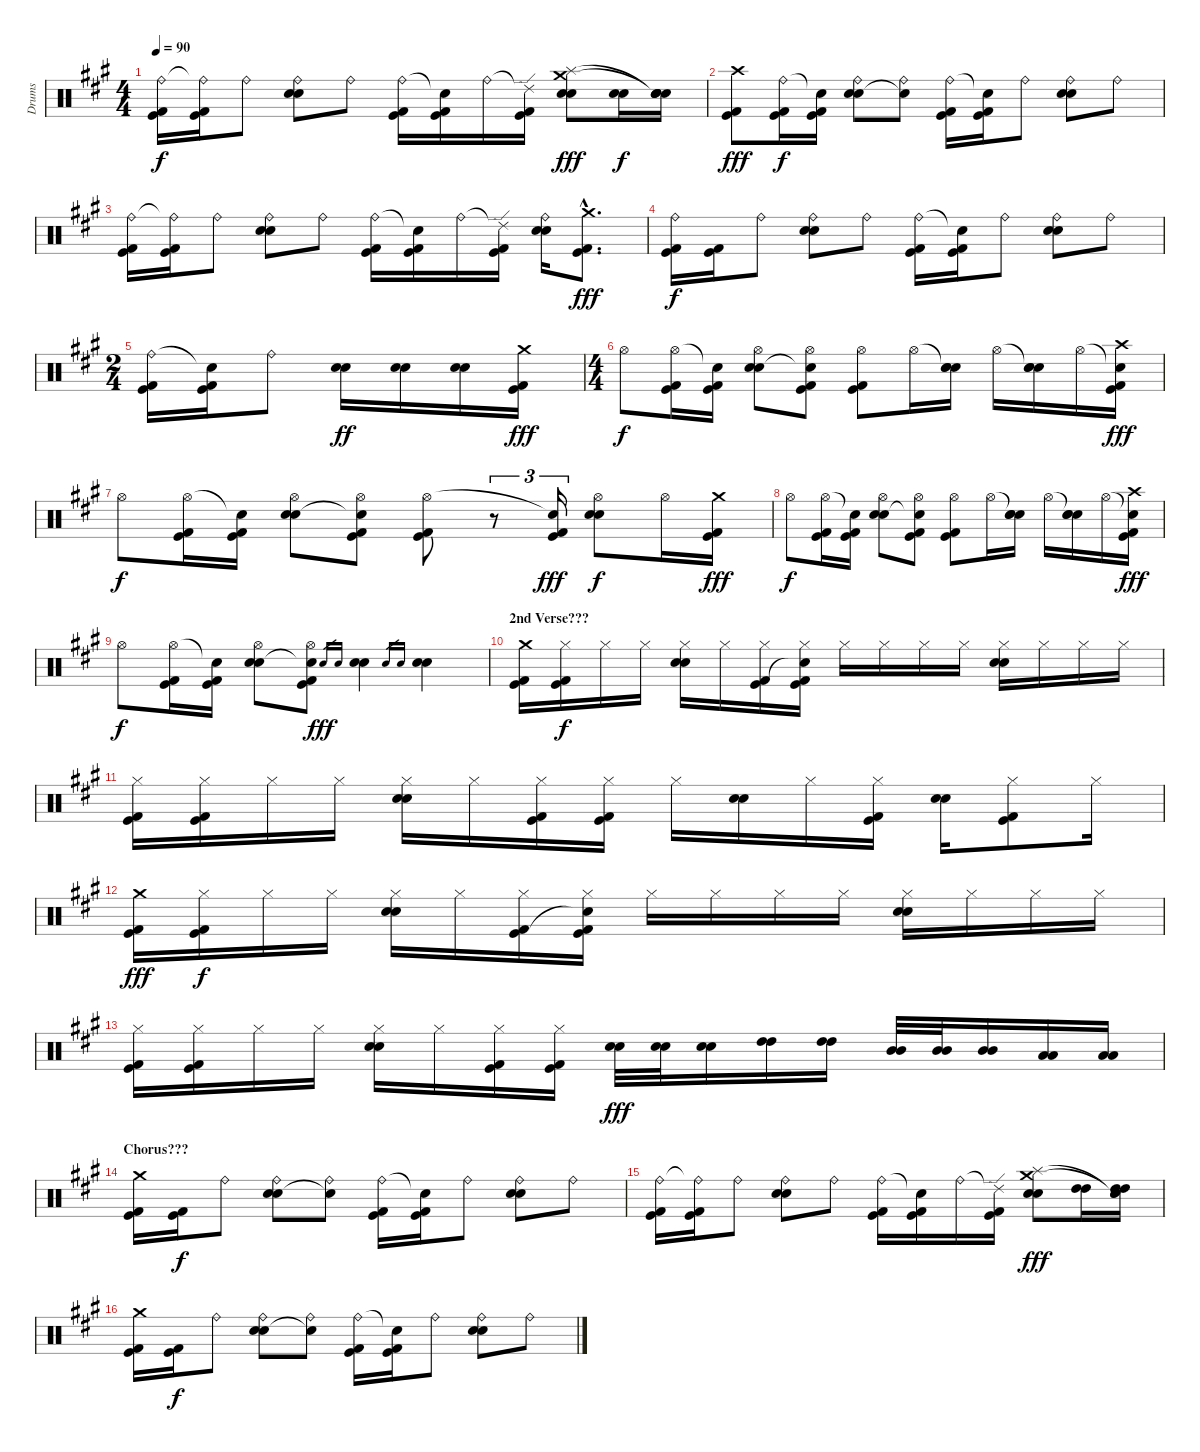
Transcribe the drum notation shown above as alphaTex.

\track ("Drums" "Drums") {instrument percussion}
\staff {score}
\articulation defaults
\ts (4 4)
\tempo 90
\clef neutral
\ks a
("Ride (bell)" "Kick (hit)" "Kick (hit) 2").16{dy f} ("Ride (bell)"{t} "Kick (hit)" "Kick (hit) 2").16 "Ride (bell)".8 ("Ride (bell)" "Electric Snare (hit)" "Snare (hit) 2").8 "Ride (bell)".8 ("Ride (bell)" "Kick (hit)" "Kick (hit) 2").16 ("Snare (hit)"{t} "Kick (hit)" "Kick (hit) 2").16 "Ride (bell)".16 ("Ride (edge) 2"{t} "Kick (hit)" "Kick (hit) 2").16 ("Electric Snare (hit)" "Snare (hit) 2" "Crash medium (hit)" "Splash (hit)").8{dy fff} ("Electric Snare (hit)" "Snare (hit) 2").16{dy f} ("Electric Snare (hit)" "Snare (hit) 2" "Snare (hit)"{t} "Snare (hit)"{t}).16 |
("Crash high (hit)" "Kick (hit)" "Kick (hit) 2").8{dy fff} ("Ride (bell)" "Kick (hit)" "Kick (hit) 2").16{dy f} ("Snare (hit)"{t} "Kick (hit)" "Kick (hit) 2").16 ("Ride (bell)" "Electric Snare (hit)" "Snare (hit) 2").8 ("Ride (bell)" "Snare (hit)"{t}).8 ("Ride (bell)" "Kick (hit)" "Kick (hit) 2").16 ("Snare (hit)"{t} "Kick (hit)" "Kick (hit) 2").16 "Ride (bell)".8 ("Ride (bell)" "Electric Snare (hit)" "Snare (hit) 2").8 "Ride (bell)".8 |
("Ride (bell)" "Kick (hit)" "Kick (hit) 2").16 ("Ride (bell)"{t} "Kick (hit)" "Kick (hit) 2").16 "Ride (bell)".8 ("Ride (bell)" "Electric Snare (hit)" "Snare (hit) 2").8 "Ride (bell)".8 ("Ride (bell)" "Kick (hit)" "Kick (hit) 2").16 ("Snare (hit)"{t} "Kick (hit)" "Kick (hit) 2").16 "Ride (bell)".16 ("Ride (edge) 2"{t} "Kick (hit)" "Kick (hit) 2").16 ("Ride (bell)" "Electric Snare (hit)" "Snare (hit) 2").16 ("Crash medium (hit)"{hac} "Kick (hit)"{hac} "Kick (hit) 2"{hac}).8{d dy fff} |
("Ride (bell)" "Kick (hit)" "Kick (hit) 2").16{dy f} ("Kick (hit)" "Kick (hit) 2").16 "Ride (bell)".8 ("Ride (bell)" "Electric Snare (hit)" "Snare (hit) 2").8 "Ride (bell)".8 ("Ride (bell)" "Kick (hit)" "Kick (hit) 2").16 ("Snare (hit)"{t} "Kick (hit)" "Kick (hit) 2").16 "Ride (bell)".8 ("Ride (bell)" "Electric Snare (hit)" "Snare (hit) 2").8 "Ride (bell)".8 |
\ts (2 4)
("Ride (bell)" "Kick (hit)" "Kick (hit) 2").16 ("Snare (hit)"{t} "Kick (hit)" "Kick (hit) 2").16 "Ride (bell)".8 ("Electric Snare (hit)" "Snare (hit) 2").16{dy ff} ("Electric Snare (hit)" "Snare (hit) 2").16 ("Electric Snare (hit)" "Snare (hit) 2").16 ("Crash medium (hit)" "Kick (hit)" "Kick (hit) 2").16{dy fff} |
\ts (4 4)
"Hi-Hat (open)".8{dy f} ("Hi-Hat (open)" "Kick (hit)" "Kick (hit) 2").16 ("Snare (hit)"{t} "Kick (hit)" "Kick (hit) 2").16 ("Hi-Hat (open)" "Electric Snare (hit)" "Snare (hit) 2").8 ("Hi-Hat (open)" "Snare (hit)"{t} "Kick (hit)" "Kick (hit) 2").8 ("Hi-Hat (open)" "Kick (hit)" "Kick (hit) 2").8 "Hi-Hat (open)".16 ("Snare (hit)"{t} "Electric Snare (hit)" "Snare (hit) 2").16 "Hi-Hat (open)".16 ("Snare (hit)"{t} "Electric Snare (hit)" "Snare (hit) 2").16 "Hi-Hat (open)".16 ("Snare (hit)"{t} "Crash high (hit)" "Kick (hit)" "Kick (hit) 2").16{dy fff} |
"Hi-Hat (open)".8{dy f} ("Hi-Hat (open)" "Kick (hit)" "Kick (hit) 2").16 ("Snare (hit)"{t} "Kick (hit)" "Kick (hit) 2").16 ("Hi-Hat (open)" "Electric Snare (hit)" "Snare (hit) 2").8 ("Hi-Hat (open)" "Snare (hit)"{t} "Kick (hit)" "Kick (hit) 2").8 ("Hi-Hat (open)" "Kick (hit)" "Kick (hit) 2").8 r.8{tu (3 2)} ("Snare (hit)"{t} "Kick (hit)" "Kick (hit) 2").16{tu (3 2) dy fff} ("Hi-Hat (open)" "Electric Snare (hit)" "Snare (hit) 2").8{dy f} "Hi-Hat (open)".16 ("Crash medium (hit)" "Kick (hit)" "Kick (hit) 2").16{dy fff} |
"Hi-Hat (open)".8{dy f} ("Hi-Hat (open)" "Kick (hit)" "Kick (hit) 2").16 ("Snare (hit)"{t} "Kick (hit)" "Kick (hit) 2").16 ("Hi-Hat (open)" "Electric Snare (hit)" "Snare (hit) 2").8 ("Hi-Hat (open)" "Snare (hit)"{t} "Kick (hit)" "Kick (hit) 2").8 ("Hi-Hat (open)" "Kick (hit)" "Kick (hit) 2").8 "Hi-Hat (open)".16 ("Snare (hit)"{t} "Electric Snare (hit)" "Snare (hit) 2").16 "Hi-Hat (open)".16 ("Snare (hit)"{t} "Electric Snare (hit)" "Snare (hit) 2").16 "Hi-Hat (open)".16 ("Snare (hit)"{t} "Crash high (hit)" "Kick (hit)" "Kick (hit) 2").16{dy fff} |
"Hi-Hat (open)".8{dy f} ("Hi-Hat (open)" "Kick (hit)" "Kick (hit) 2").16 ("Snare (hit)"{t} "Kick (hit)" "Kick (hit) 2").16 ("Hi-Hat (open)" "Electric Snare (hit)" "Snare (hit) 2").8 ("Hi-Hat (open)" "Snare (hit)"{t} "Kick (hit)" "Kick (hit) 2").8 "Electric Snare (hit)".16{gr dy fff} "Snare (hit) 2".16{gr} ("Electric Snare (hit)" "Snare (hit) 2").4 "Electric Snare (hit)".16{gr} "Snare (hit) 2".16{gr} ("Electric Snare (hit)" "Snare (hit) 2").4 |
\section ("" "2nd Verse???")
("Crash medium (hit)" "Kick (hit)" "Kick (hit) 2").16 ("Hi-Hat (closed)" "Kick (hit)" "Kick (hit) 2").16{dy f} "Hi-Hat (closed)".16 "Hi-Hat (closed)".16 ("Hi-Hat (closed)" "Electric Snare (hit)" "Snare (hit) 2").16 "Hi-Hat (closed)".16 ("Hi-Hat (closed)" "Kick (hit)" "Kick (hit) 2").16 ("Hi-Hat (closed)" "Snare (hit)"{t} "Kick (hit)" "Kick (hit) 2").16 "Hi-Hat (closed)".16 "Hi-Hat (closed)".16 "Hi-Hat (closed)".16 "Hi-Hat (closed)".16 ("Hi-Hat (closed)" "Electric Snare (hit)" "Snare (hit) 2").16 "Hi-Hat (closed)".16 "Hi-Hat (closed)".16 "Hi-Hat (closed)".16 |
("Hi-Hat (closed)" "Kick (hit)" "Kick (hit) 2").16 ("Hi-Hat (closed)" "Kick (hit)" "Kick (hit) 2").16 "Hi-Hat (closed)".16 "Hi-Hat (closed)".16 ("Hi-Hat (closed)" "Electric Snare (hit)" "Snare (hit) 2").16 "Hi-Hat (closed)".16 ("Hi-Hat (closed)" "Kick (hit)" "Kick (hit) 2").16 ("Hi-Hat (closed)" "Kick (hit)" "Kick (hit) 2").16 "Hi-Hat (closed)".16 ("Electric Snare (hit)" "Snare (hit) 2").16 "Hi-Hat (closed)".16 ("Hi-Hat (closed)" "Kick (hit)" "Kick (hit) 2").16 ("Electric Snare (hit)" "Snare (hit) 2").16 ("Hi-Hat (closed)" "Kick (hit)" "Kick (hit) 2").8 "Hi-Hat (closed)".16 |
("Crash medium (hit)" "Kick (hit)" "Kick (hit) 2").16{dy fff} ("Hi-Hat (closed)" "Kick (hit)" "Kick (hit) 2").16{dy f} "Hi-Hat (closed)".16 "Hi-Hat (closed)".16 ("Hi-Hat (closed)" "Electric Snare (hit)" "Snare (hit) 2").16 "Hi-Hat (closed)".16 ("Hi-Hat (closed)" "Kick (hit)" "Kick (hit) 2").16 ("Hi-Hat (closed)" "Snare (hit)"{t} "Kick (hit)" "Kick (hit) 2").16 "Hi-Hat (closed)".16 "Hi-Hat (closed)".16 "Hi-Hat (closed)".16 "Hi-Hat (closed)".16 ("Hi-Hat (closed)" "Electric Snare (hit)" "Snare (hit) 2").16 "Hi-Hat (closed)".16 "Hi-Hat (closed)".16 "Hi-Hat (closed)".16 |
("Hi-Hat (closed)" "Kick (hit)" "Kick (hit) 2").16 ("Hi-Hat (closed)" "Kick (hit)" "Kick (hit) 2").16 "Hi-Hat (closed)".16 "Hi-Hat (closed)".16 ("Hi-Hat (closed)" "Electric Snare (hit)" "Snare (hit) 2").16 "Hi-Hat (closed)".16 ("Hi-Hat (closed)" "Kick (hit)" "Kick (hit) 2").16 ("Hi-Hat (closed)" "Kick (hit)" "Kick (hit) 2").16 ("Electric Snare (hit)" "Snare (hit) 2").32{dy fff} ("Electric Snare (hit)" "Snare (hit) 2").32 ("Electric Snare (hit)" "Snare (hit) 2").16 ("High Tom (hit)" "High Tom (hit)").16 ("High Tom (hit)" "High Tom (hit)").16 ("Mid Tom (hit)" "Mid Tom (hit)").32 ("Mid Tom (hit)" "Mid Tom (hit)").32 ("Mid Tom (hit)" "Mid Tom (hit)").16 ("Low Tom (hit)" "Low Tom (hit)").16 ("Low Tom (hit)" "Low Tom (hit)").16 |
\section ("" "Chorus???")
("Crash medium (hit)" "Kick (hit)" "Kick (hit) 2").16 ("Kick (hit)" "Kick (hit) 2").16{dy f} "Ride (bell)".8 ("Ride (bell)" "Electric Snare (hit)" "Snare (hit) 2").8 ("Ride (bell)" "Snare (hit)"{t}).8 ("Ride (bell)" "Kick (hit)" "Kick (hit) 2").16 ("Snare (hit)"{t} "Kick (hit)" "Kick (hit) 2").16 "Ride (bell)".8 ("Ride (bell)" "Electric Snare (hit)" "Snare (hit) 2").8 "Ride (bell)".8 |
("Ride (bell)" "Kick (hit)" "Kick (hit) 2").16 ("Ride (bell)"{t} "Kick (hit)" "Kick (hit) 2").16 "Ride (bell)".8 ("Ride (bell)" "Electric Snare (hit)" "Snare (hit) 2").8 "Ride (bell)".8 ("Ride (bell)" "Kick (hit)" "Kick (hit) 2").16 ("Snare (hit)"{t} "Kick (hit)" "Kick (hit) 2").16 "Ride (bell)".16 ("Ride (edge) 2"{t} "Kick (hit)" "Kick (hit) 2").16 ("Electric Snare (hit)" "Snare (hit) 2" "Crash medium (hit)" "Splash (hit)").8{dy fff} ("High Tom (hit)" "High Tom (hit)").16 ("High Tom (hit)" "High Tom (hit)" "Snare (hit)"{t} "Snare (hit)"{t}).16 |
("Crash medium (hit)" "Kick (hit)" "Kick (hit) 2").16 ("Kick (hit)" "Kick (hit) 2").16{dy f} "Ride (bell)".8 ("Ride (bell)" "Electric Snare (hit)" "Snare (hit) 2").8 ("Ride (bell)" "Snare (hit)"{t}).8 ("Ride (bell)" "Kick (hit)" "Kick (hit) 2").16 ("Snare (hit)"{t} "Kick (hit)" "Kick (hit) 2").16 "Ride (bell)".8 ("Ride (bell)" "Electric Snare (hit)" "Snare (hit) 2").8 "Ride (bell)".8
